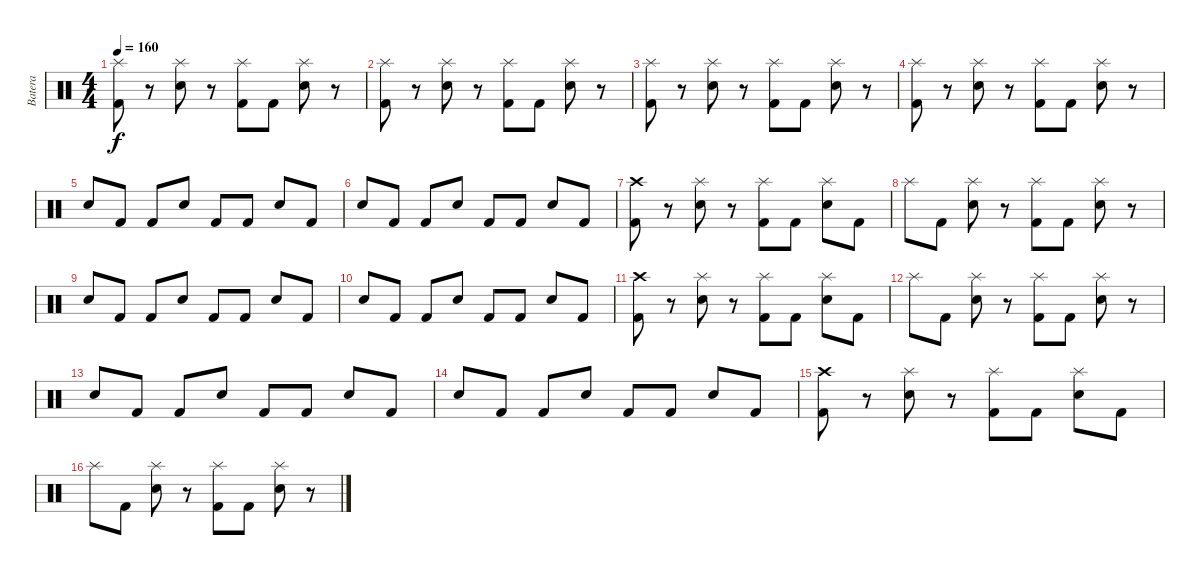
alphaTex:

\track ("Batera" "Batera") {instrument percussion}
\staff {score}
\articulation defaults
\ts (4 4)
\tempo 160
\clef neutral
\ks c
("Splash (hit)" "Kick (hit) 2").8{dy f} r.8 ("Splash (hit)" "Electric Snare (hit)").8 r.8 ("Splash (hit)" "Kick (hit) 2").8 "Kick (hit) 2".8 ("Splash (hit)" "Electric Snare (hit)").8 r.8 |
("Splash (hit)" "Kick (hit) 2").8 r.8 ("Splash (hit)" "Electric Snare (hit)").8 r.8 ("Splash (hit)" "Kick (hit) 2").8 "Kick (hit) 2".8 ("Splash (hit)" "Electric Snare (hit)").8 r.8 |
("Splash (hit)" "Kick (hit) 2").8 r.8 ("Splash (hit)" "Electric Snare (hit)").8 r.8 ("Splash (hit)" "Kick (hit) 2").8 "Kick (hit) 2".8 ("Splash (hit)" "Electric Snare (hit)").8 r.8 |
("Splash (hit)" "Kick (hit) 2").8 r.8 ("Splash (hit)" "Electric Snare (hit)").8 r.8 ("Splash (hit)" "Kick (hit) 2").8 "Kick (hit) 2".8 ("Splash (hit)" "Electric Snare (hit)").8 r.8 |
"Electric Snare (hit)".8 "Kick (hit) 2".8 "Kick (hit) 2".8 "Electric Snare (hit)".8 "Kick (hit) 2".8 "Kick (hit) 2".8 "Electric Snare (hit)".8 "Kick (hit) 2".8 |
"Electric Snare (hit)".8 "Kick (hit) 2".8 "Kick (hit) 2".8 "Electric Snare (hit)".8 "Kick (hit) 2".8 "Kick (hit) 2".8 "Electric Snare (hit)".8 "Kick (hit) 2".8 |
("Crash high (hit)" "Kick (hit) 2").8 r.8 ("Splash (hit)" "Electric Snare (hit)").8 r.8 ("Splash (hit)" "Kick (hit) 2").8 "Kick (hit) 2".8 ("Splash (hit)" "Electric Snare (hit)").8 "Kick (hit) 2".8 |
"Splash (hit)".8 "Kick (hit) 2".8 ("Splash (hit)" "Electric Snare (hit)").8 r.8 ("Splash (hit)" "Kick (hit) 2").8 "Kick (hit) 2".8 ("Splash (hit)" "Electric Snare (hit)").8 r.8 |
"Electric Snare (hit)".8 "Kick (hit) 2".8 "Kick (hit) 2".8 "Electric Snare (hit)".8 "Kick (hit) 2".8 "Kick (hit) 2".8 "Electric Snare (hit)".8 "Kick (hit) 2".8 |
"Electric Snare (hit)".8 "Kick (hit) 2".8 "Kick (hit) 2".8 "Electric Snare (hit)".8 "Kick (hit) 2".8 "Kick (hit) 2".8 "Electric Snare (hit)".8 "Kick (hit) 2".8 |
("Crash high (hit)" "Kick (hit) 2").8 r.8 ("Splash (hit)" "Electric Snare (hit)").8 r.8 ("Splash (hit)" "Kick (hit) 2").8 "Kick (hit) 2".8 ("Splash (hit)" "Electric Snare (hit)").8 "Kick (hit) 2".8 |
"Splash (hit)".8 "Kick (hit) 2".8 ("Splash (hit)" "Electric Snare (hit)").8 r.8 ("Splash (hit)" "Kick (hit) 2").8 "Kick (hit) 2".8 ("Splash (hit)" "Electric Snare (hit)").8 r.8 |
"Electric Snare (hit)".8 "Kick (hit) 2".8 "Kick (hit) 2".8 "Electric Snare (hit)".8 "Kick (hit) 2".8 "Kick (hit) 2".8 "Electric Snare (hit)".8 "Kick (hit) 2".8 |
"Electric Snare (hit)".8 "Kick (hit) 2".8 "Kick (hit) 2".8 "Electric Snare (hit)".8 "Kick (hit) 2".8 "Kick (hit) 2".8 "Electric Snare (hit)".8 "Kick (hit) 2".8 |
("Crash high (hit)" "Kick (hit) 2").8 r.8 ("Splash (hit)" "Electric Snare (hit)").8 r.8 ("Splash (hit)" "Kick (hit) 2").8 "Kick (hit) 2".8 ("Splash (hit)" "Electric Snare (hit)").8 "Kick (hit) 2".8 |
"Splash (hit)".8 "Kick (hit) 2".8 ("Splash (hit)" "Electric Snare (hit)").8 r.8 ("Splash (hit)" "Kick (hit) 2").8 "Kick (hit) 2".8 ("Splash (hit)" "Electric Snare (hit)").8 r.8
